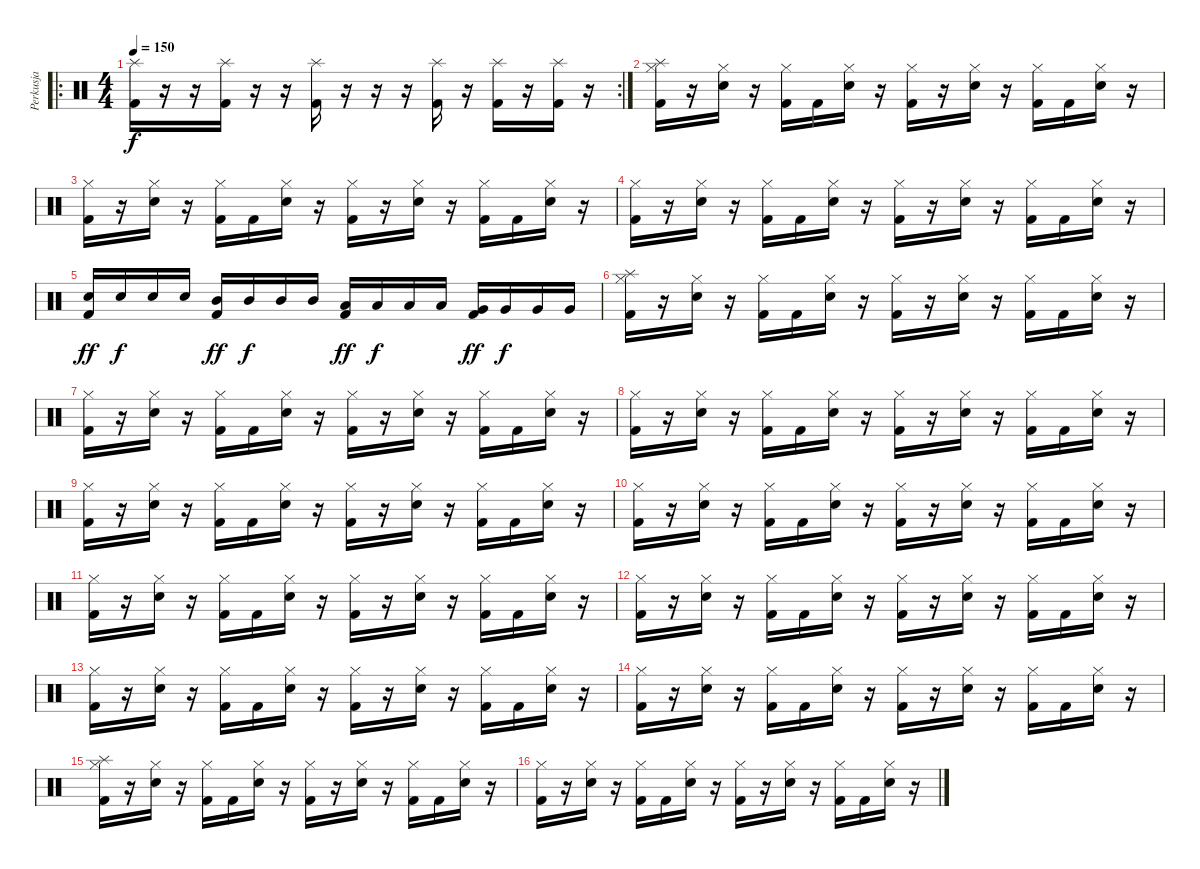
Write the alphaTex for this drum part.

\track ("Perkusja" "Perkusja") {instrument percussion}
\staff {score}
\articulation defaults
\ro
\rc 2
\ts (4 4)
\tempo 150
\clef neutral
\ks c
("Splash (hit)" "Kick (hit) 2").16{dy f} r.16 r.16 ("Splash (hit)" "Kick (hit) 2").16 r.16 r.16 ("Splash (hit)" "Kick (hit) 2").16 r.16 r.16 r.16 ("Splash (hit)" "Kick (hit) 2").16 r.16 ("Splash (hit)" "Kick (hit) 2").16 r.16 ("Splash (hit)" "Kick (hit) 2").16 r.16 |
("Splash (hit)" "Hi-Hat (closed)" "Kick (hit) 2").16 r.16 ("Hi-Hat (closed)" "Electric Snare (hit)").16 r.16 ("Hi-Hat (closed)" "Kick (hit) 2").16 "Kick (hit) 2".16 ("Hi-Hat (closed)" "Electric Snare (hit)").16 r.16 ("Hi-Hat (closed)" "Kick (hit) 2").16 r.16 ("Hi-Hat (closed)" "Electric Snare (hit)").16 r.16 ("Hi-Hat (closed)" "Kick (hit) 2").16 "Kick (hit) 2".16 ("Hi-Hat (closed)" "Electric Snare (hit)").16 r.16 |
("Hi-Hat (closed)" "Kick (hit) 2").16 r.16 ("Hi-Hat (closed)" "Electric Snare (hit)").16 r.16 ("Hi-Hat (closed)" "Kick (hit) 2").16 "Kick (hit) 2".16 ("Hi-Hat (closed)" "Electric Snare (hit)").16 r.16 ("Hi-Hat (closed)" "Kick (hit) 2").16 r.16 ("Hi-Hat (closed)" "Electric Snare (hit)").16 r.16 ("Hi-Hat (closed)" "Kick (hit) 2").16 "Kick (hit) 2".16 ("Hi-Hat (closed)" "Electric Snare (hit)").16 r.16 |
("Hi-Hat (closed)" "Kick (hit) 2").16 r.16 ("Hi-Hat (closed)" "Electric Snare (hit)").16 r.16 ("Hi-Hat (closed)" "Kick (hit) 2").16 "Kick (hit) 2".16 ("Hi-Hat (closed)" "Electric Snare (hit)").16 r.16 ("Hi-Hat (closed)" "Kick (hit) 2").16 r.16 ("Hi-Hat (closed)" "Electric Snare (hit)").16 r.16 ("Hi-Hat (closed)" "Kick (hit) 2").16 "Kick (hit) 2".16 ("Hi-Hat (closed)" "Electric Snare (hit)").16 r.16 |
("Electric Snare (hit)" "Kick (hit) 2").16{dy ff} "Electric Snare (hit)".16{dy f} "Electric Snare (hit)".16 "Electric Snare (hit)".16 ("Mid Tom (hit)" "Kick (hit) 2").16{dy ff} "Mid Tom (hit)".16{dy f} "Mid Tom (hit)".16 "Mid Tom (hit)".16 ("Low Tom (hit)" "Kick (hit) 2").16{dy ff} "Low Tom (hit)".16{dy f} "Low Tom (hit)".16 "Low Tom (hit)".16 ("Very Low Tom (hit)" "Kick (hit) 2").16{dy ff} "Very Low Tom (hit)".16{dy f} "Very Low Tom (hit)".16 "Very Low Tom (hit)".16 |
("Splash (hit)" "Hi-Hat (closed)" "Kick (hit) 2").16 r.16 ("Hi-Hat (closed)" "Electric Snare (hit)").16 r.16 ("Hi-Hat (closed)" "Kick (hit) 2").16 "Kick (hit) 2".16 ("Hi-Hat (closed)" "Electric Snare (hit)").16 r.16 ("Hi-Hat (closed)" "Kick (hit) 2").16 r.16 ("Hi-Hat (closed)" "Electric Snare (hit)").16 r.16 ("Hi-Hat (closed)" "Kick (hit) 2").16 "Kick (hit) 2".16 ("Hi-Hat (closed)" "Electric Snare (hit)").16 r.16 |
("Hi-Hat (closed)" "Kick (hit) 2").16 r.16 ("Hi-Hat (closed)" "Electric Snare (hit)").16 r.16 ("Hi-Hat (closed)" "Kick (hit) 2").16 "Kick (hit) 2".16 ("Hi-Hat (closed)" "Electric Snare (hit)").16 r.16 ("Hi-Hat (closed)" "Kick (hit) 2").16 r.16 ("Hi-Hat (closed)" "Electric Snare (hit)").16 r.16 ("Hi-Hat (closed)" "Kick (hit) 2").16 "Kick (hit) 2".16 ("Hi-Hat (closed)" "Electric Snare (hit)").16 r.16 |
("Hi-Hat (closed)" "Kick (hit) 2").16 r.16 ("Hi-Hat (closed)" "Electric Snare (hit)").16 r.16 ("Hi-Hat (closed)" "Kick (hit) 2").16 "Kick (hit) 2".16 ("Hi-Hat (closed)" "Electric Snare (hit)").16 r.16 ("Hi-Hat (closed)" "Kick (hit) 2").16 r.16 ("Hi-Hat (closed)" "Electric Snare (hit)").16 r.16 ("Hi-Hat (closed)" "Kick (hit) 2").16 "Kick (hit) 2".16 ("Hi-Hat (closed)" "Electric Snare (hit)").16 r.16 |
("Hi-Hat (closed)" "Kick (hit) 2").16 r.16 ("Hi-Hat (closed)" "Electric Snare (hit)").16 r.16 ("Hi-Hat (closed)" "Kick (hit) 2").16 "Kick (hit) 2".16 ("Hi-Hat (closed)" "Electric Snare (hit)").16 r.16 ("Hi-Hat (closed)" "Kick (hit) 2").16 r.16 ("Hi-Hat (closed)" "Electric Snare (hit)").16 r.16 ("Hi-Hat (closed)" "Kick (hit) 2").16 "Kick (hit) 2".16 ("Hi-Hat (closed)" "Electric Snare (hit)").16 r.16 |
("Hi-Hat (closed)" "Kick (hit) 2").16 r.16 ("Hi-Hat (closed)" "Electric Snare (hit)").16 r.16 ("Hi-Hat (closed)" "Kick (hit) 2").16 "Kick (hit) 2".16 ("Hi-Hat (closed)" "Electric Snare (hit)").16 r.16 ("Hi-Hat (closed)" "Kick (hit) 2").16 r.16 ("Hi-Hat (closed)" "Electric Snare (hit)").16 r.16 ("Hi-Hat (closed)" "Kick (hit) 2").16 "Kick (hit) 2".16 ("Hi-Hat (closed)" "Electric Snare (hit)").16 r.16 |
("Hi-Hat (closed)" "Kick (hit) 2").16 r.16 ("Hi-Hat (closed)" "Electric Snare (hit)").16 r.16 ("Hi-Hat (closed)" "Kick (hit) 2").16 "Kick (hit) 2".16 ("Hi-Hat (closed)" "Electric Snare (hit)").16 r.16 ("Hi-Hat (closed)" "Kick (hit) 2").16 r.16 ("Hi-Hat (closed)" "Electric Snare (hit)").16 r.16 ("Hi-Hat (closed)" "Kick (hit) 2").16 "Kick (hit) 2".16 ("Hi-Hat (closed)" "Electric Snare (hit)").16 r.16 |
("Hi-Hat (closed)" "Kick (hit) 2").16 r.16 ("Hi-Hat (closed)" "Electric Snare (hit)").16 r.16 ("Hi-Hat (closed)" "Kick (hit) 2").16 "Kick (hit) 2".16 ("Hi-Hat (closed)" "Electric Snare (hit)").16 r.16 ("Hi-Hat (closed)" "Kick (hit) 2").16 r.16 ("Hi-Hat (closed)" "Electric Snare (hit)").16 r.16 ("Hi-Hat (closed)" "Kick (hit) 2").16 "Kick (hit) 2".16 ("Hi-Hat (closed)" "Electric Snare (hit)").16 r.16 |
("Hi-Hat (closed)" "Kick (hit) 2").16 r.16 ("Hi-Hat (closed)" "Electric Snare (hit)").16 r.16 ("Hi-Hat (closed)" "Kick (hit) 2").16 "Kick (hit) 2".16 ("Hi-Hat (closed)" "Electric Snare (hit)").16 r.16 ("Hi-Hat (closed)" "Kick (hit) 2").16 r.16 ("Hi-Hat (closed)" "Electric Snare (hit)").16 r.16 ("Hi-Hat (closed)" "Kick (hit) 2").16 "Kick (hit) 2".16 ("Hi-Hat (closed)" "Electric Snare (hit)").16 r.16 |
("Hi-Hat (closed)" "Kick (hit) 2").16 r.16 ("Hi-Hat (closed)" "Electric Snare (hit)").16 r.16 ("Hi-Hat (closed)" "Kick (hit) 2").16 "Kick (hit) 2".16 ("Hi-Hat (closed)" "Electric Snare (hit)").16 r.16 ("Hi-Hat (closed)" "Kick (hit) 2").16 r.16 ("Hi-Hat (closed)" "Electric Snare (hit)").16 r.16 ("Hi-Hat (closed)" "Kick (hit) 2").16 "Kick (hit) 2".16 ("Hi-Hat (closed)" "Electric Snare (hit)").16 r.16 |
("Splash (hit)" "Hi-Hat (closed)" "Kick (hit) 2").16 r.16 ("Hi-Hat (closed)" "Electric Snare (hit)").16 r.16 ("Hi-Hat (closed)" "Kick (hit) 2").16 "Kick (hit) 2".16 ("Hi-Hat (closed)" "Electric Snare (hit)").16 r.16 ("Hi-Hat (closed)" "Kick (hit) 2").16 r.16 ("Hi-Hat (closed)" "Electric Snare (hit)").16 r.16 ("Hi-Hat (closed)" "Kick (hit) 2").16 "Kick (hit) 2".16 ("Hi-Hat (closed)" "Electric Snare (hit)").16 r.16 |
("Hi-Hat (closed)" "Kick (hit) 2").16 r.16 ("Hi-Hat (closed)" "Electric Snare (hit)").16 r.16 ("Hi-Hat (closed)" "Kick (hit) 2").16 "Kick (hit) 2".16 ("Hi-Hat (closed)" "Electric Snare (hit)").16 r.16 ("Hi-Hat (closed)" "Kick (hit) 2").16 r.16 ("Hi-Hat (closed)" "Electric Snare (hit)").16 r.16 ("Hi-Hat (closed)" "Kick (hit) 2").16 "Kick (hit) 2".16 ("Hi-Hat (closed)" "Electric Snare (hit)").16 r.16
